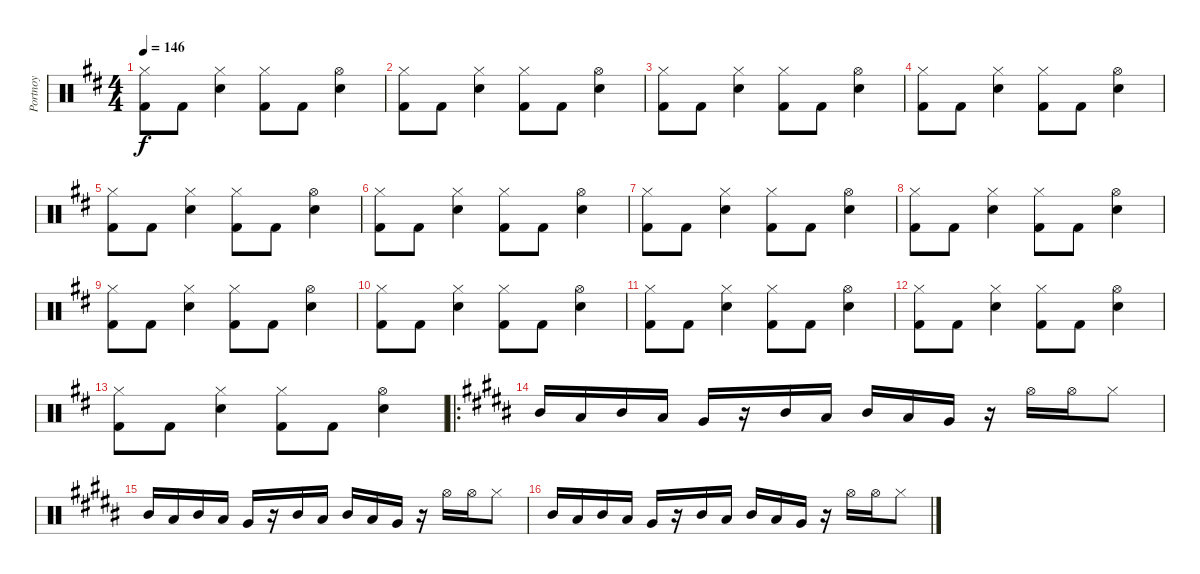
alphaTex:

\track ("Portnoy" "Portnoy") {instrument percussion}
\staff {score}
\articulation defaults
\ts (4 4)
\tempo 146
\clef neutral
\ks d
("Hi-Hat (closed)" "Kick (hit) 2").8{dy f} "Kick (hit) 2".8 ("Hi-Hat (closed)" "Electric Snare (hit)").4 ("Hi-Hat (closed)" "Kick (hit) 2").8 "Kick (hit) 2".8 ("Hi-Hat (open)" "Electric Snare (hit)").4 |
("Hi-Hat (closed)" "Kick (hit) 2").8 "Kick (hit) 2".8 ("Hi-Hat (closed)" "Electric Snare (hit)").4 ("Hi-Hat (closed)" "Kick (hit) 2").8 "Kick (hit) 2".8 ("Hi-Hat (open)" "Electric Snare (hit)").4 |
("Hi-Hat (closed)" "Kick (hit) 2").8 "Kick (hit) 2".8 ("Hi-Hat (closed)" "Electric Snare (hit)").4 ("Hi-Hat (closed)" "Kick (hit) 2").8 "Kick (hit) 2".8 ("Hi-Hat (open)" "Electric Snare (hit)").4 |
("Hi-Hat (closed)" "Kick (hit) 2").8 "Kick (hit) 2".8 ("Hi-Hat (closed)" "Electric Snare (hit)").4 ("Hi-Hat (closed)" "Kick (hit) 2").8 "Kick (hit) 2".8 ("Hi-Hat (open)" "Electric Snare (hit)").4 |
("Hi-Hat (closed)" "Kick (hit) 2").8 "Kick (hit) 2".8 ("Hi-Hat (closed)" "Electric Snare (hit)").4 ("Hi-Hat (closed)" "Kick (hit) 2").8 "Kick (hit) 2".8 ("Hi-Hat (open)" "Electric Snare (hit)").4 |
("Hi-Hat (closed)" "Kick (hit) 2").8 "Kick (hit) 2".8 ("Hi-Hat (closed)" "Electric Snare (hit)").4 ("Hi-Hat (closed)" "Kick (hit) 2").8 "Kick (hit) 2".8 ("Hi-Hat (open)" "Electric Snare (hit)").4 |
("Hi-Hat (closed)" "Kick (hit) 2").8 "Kick (hit) 2".8 ("Hi-Hat (closed)" "Electric Snare (hit)").4 ("Hi-Hat (closed)" "Kick (hit) 2").8 "Kick (hit) 2".8 ("Hi-Hat (open)" "Electric Snare (hit)").4 |
("Hi-Hat (closed)" "Kick (hit) 2").8 "Kick (hit) 2".8 ("Hi-Hat (closed)" "Electric Snare (hit)").4 ("Hi-Hat (closed)" "Kick (hit) 2").8 "Kick (hit) 2".8 ("Hi-Hat (open)" "Electric Snare (hit)").4 |
("Hi-Hat (closed)" "Kick (hit) 2").8 "Kick (hit) 2".8 ("Hi-Hat (closed)" "Electric Snare (hit)").4 ("Hi-Hat (closed)" "Kick (hit) 2").8 "Kick (hit) 2".8 ("Hi-Hat (open)" "Electric Snare (hit)").4 |
("Hi-Hat (closed)" "Kick (hit) 2").8 "Kick (hit) 2".8 ("Hi-Hat (closed)" "Electric Snare (hit)").4 ("Hi-Hat (closed)" "Kick (hit) 2").8 "Kick (hit) 2".8 ("Hi-Hat (open)" "Electric Snare (hit)").4 |
("Hi-Hat (closed)" "Kick (hit) 2").8 "Kick (hit) 2".8 ("Hi-Hat (closed)" "Electric Snare (hit)").4 ("Hi-Hat (closed)" "Kick (hit) 2").8 "Kick (hit) 2".8 ("Hi-Hat (open)" "Electric Snare (hit)").4 |
("Hi-Hat (closed)" "Kick (hit) 2").8 "Kick (hit) 2".8 ("Hi-Hat (closed)" "Electric Snare (hit)").4 ("Hi-Hat (closed)" "Kick (hit) 2").8 "Kick (hit) 2".8 ("Hi-Hat (open)" "Electric Snare (hit)").4 |
("Hi-Hat (closed)" "Kick (hit) 2").8 "Kick (hit) 2".8 ("Hi-Hat (closed)" "Electric Snare (hit)").4 ("Hi-Hat (closed)" "Kick (hit) 2").8 "Kick (hit) 2".8 ("Hi-Hat (open)" "Electric Snare (hit)").4 |
\ro
\ks b "Mid Tom (hit)".16 "Low Tom (hit)".16 "Mid Tom (hit)".16 "Low Tom (hit)".16 "Very Low Tom (hit)".16
r.16 "Mid Tom (hit)".16 "Low Tom (hit)".16 "Mid Tom (hit)".16 "Low Tom (hit)".16 "Very Low Tom (hit)".16 r.16 "Hi-Hat (open)".16 "Hi-Hat (open)".16 "Hi-Hat (closed)".8 |
\ks g#minor "Mid Tom (hit)".16 "Low Tom (hit)".16 "Mid Tom (hit)".16 "Low Tom (hit)".16 "Very Low Tom (hit)".16
r.16 "Mid Tom (hit)".16 "Low Tom (hit)".16 "Mid Tom (hit)".16 "Low Tom (hit)".16 "Very Low Tom (hit)".16 r.16 "Hi-Hat (open)".16 "Hi-Hat (open)".16 "Hi-Hat (closed)".8 |
"Mid Tom (hit)".16 "Low Tom (hit)".16 "Mid Tom (hit)".16 "Low Tom (hit)".16 "Very Low Tom (hit)".16 r.16 "Mid Tom (hit)".16 "Low Tom (hit)".16 "Mid Tom (hit)".16 "Low Tom (hit)".16 "Very Low Tom (hit)".16 r.16 "Hi-Hat (open)".16 "Hi-Hat (open)".16 "Hi-Hat (closed)".8
